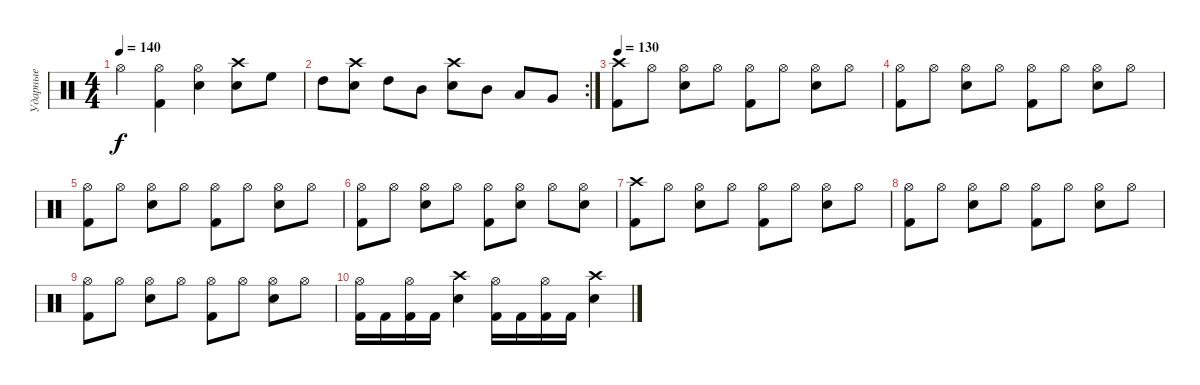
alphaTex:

\track ("Ударные" "Ударные") {instrument percussion}
\staff {score}
\articulation defaults
\ts (4 4)
\tempo 140
\clef neutral
\ks c "Hi-Hat (open)".4{dy f}
("Hi-Hat (open)" "Kick (hit) 2").4 ("Hi-Hat (open)" "Snare (hit) 2").4 ("Crash high (hit)" "Snare (hit) 2").8 "High Floor Tom (hit)".8 |
\rc 2 "High Tom (hit)".8
("Crash high (hit)" "Snare (hit) 2").8 "High Tom (hit)".8 "Mid Tom (hit)".8 ("Crash high (hit)" "Snare (hit) 2").8 "Mid Tom (hit)".8 "Low Tom (hit)".8 "Very Low Tom (hit)".8 |
\tempo 130
("Crash high (hit)" "Kick (hit) 2").8 "Hi-Hat (open)".8 ("Hi-Hat (open)" "Snare (hit) 2").8 "Hi-Hat (open)".8 ("Hi-Hat (open)" "Kick (hit) 2").8 "Hi-Hat (open)".8 ("Hi-Hat (open)" "Snare (hit) 2").8 "Hi-Hat (open)".8 |
("Hi-Hat (open)" "Kick (hit) 2").8 "Hi-Hat (open)".8 ("Hi-Hat (open)" "Snare (hit) 2").8 "Hi-Hat (open)".8 ("Hi-Hat (open)" "Kick (hit) 2").8 "Hi-Hat (open)".8 ("Hi-Hat (open)" "Snare (hit) 2").8 "Hi-Hat (open)".8 |
("Hi-Hat (open)" "Kick (hit) 2").8 "Hi-Hat (open)".8 ("Hi-Hat (open)" "Snare (hit) 2").8 "Hi-Hat (open)".8 ("Hi-Hat (open)" "Kick (hit) 2").8 "Hi-Hat (open)".8 ("Hi-Hat (open)" "Snare (hit) 2").8 "Hi-Hat (open)".8 |
("Hi-Hat (open)" "Kick (hit) 2").8 "Hi-Hat (open)".8 ("Hi-Hat (open)" "Snare (hit) 2").8 "Hi-Hat (open)".8 ("Hi-Hat (open)" "Kick (hit) 2").8 ("Hi-Hat (open)" "Snare (hit) 2").8 "Hi-Hat (open)".8 ("Hi-Hat (open)" "Snare (hit) 2").8 |
("Crash high (hit)" "Kick (hit) 2").8 "Hi-Hat (open)".8 ("Hi-Hat (open)" "Snare (hit) 2").8 "Hi-Hat (open)".8 ("Hi-Hat (open)" "Kick (hit) 2").8 "Hi-Hat (open)".8 ("Hi-Hat (open)" "Snare (hit) 2").8 "Hi-Hat (open)".8 |
("Hi-Hat (open)" "Kick (hit) 2").8 "Hi-Hat (open)".8 ("Hi-Hat (open)" "Snare (hit) 2").8 "Hi-Hat (open)".8 ("Hi-Hat (open)" "Kick (hit) 2").8 "Hi-Hat (open)".8 ("Hi-Hat (open)" "Snare (hit) 2").8 "Hi-Hat (open)".8 |
("Hi-Hat (open)" "Kick (hit) 2").8 "Hi-Hat (open)".8 ("Hi-Hat (open)" "Snare (hit) 2").8 "Hi-Hat (open)".8 ("Hi-Hat (open)" "Kick (hit) 2").8 "Hi-Hat (open)".8 ("Hi-Hat (open)" "Snare (hit) 2").8 "Hi-Hat (open)".8 |
("Hi-Hat (open)" "Kick (hit) 2").16 "Kick (hit) 2".16 ("Hi-Hat (open)" "Kick (hit) 2").16 "Kick (hit) 2".16 ("Crash high (hit)" "Snare (hit) 2").4 ("Hi-Hat (open)" "Kick (hit) 2").16 "Kick (hit) 2".16 ("Hi-Hat (open)" "Kick (hit) 2").16 "Kick (hit) 2".16 ("Crash high (hit)" "Snare (hit) 2").4
